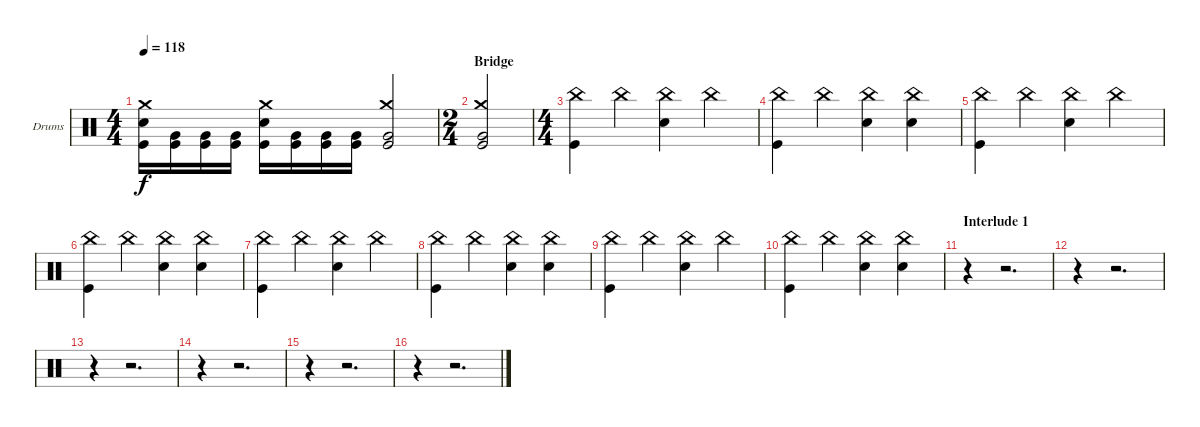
\bracketExtendMode groupsimilarinstruments
\firstSystemTrackNameOrientation horizontal
\otherSystemsTrackNameOrientation horizontal
\track ("Drumkit" "Drums") {solo instrument percussion}
\staff {score}
\articulation defaults
\ts (4 4)
\tempo 118
\clef neutral
\ks c
("Kick (hit)" "Snare (hit) 2" "Crash medium (hit)").16{dy f} ("Kick (hit)" "Very Low Tom (hit)").16 ("Kick (hit)" "Very Low Tom (hit)").16 ("Kick (hit)" "Very Low Tom (hit)").16 ("Kick (hit)" "Snare (hit) 2" "Crash medium (hit)").16 ("Kick (hit)" "Very Low Tom (hit)").16 ("Kick (hit)" "Very Low Tom (hit)").16 ("Kick (hit)" "Very Low Tom (hit)").16 ("Kick (hit)" "Very Low Tom (hit)" "Crash medium (hit)").2 |
\ts (2 4)
\beaming (8 2 2)
\section ("" "Bridge")
("Kick (hit)" "Very Low Tom (hit)" "Crash medium (hit)").2 |
\ts (4 4)
\beaming (8 2 2 2 2)
("Kick (hit)" "China (hit)").4 "China (hit)".4 ("Snare (hit) 2" "China (hit)").4 "China (hit)".4 |
("Kick (hit)" "China (hit)").4 "China (hit)".4 ("Snare (hit) 2" "China (hit)").4 ("Snare (hit) 2" "China (hit)").4 |
("Kick (hit)" "China (hit)").4 "China (hit)".4 ("Snare (hit) 2" "China (hit)").4 "China (hit)".4 |
("Kick (hit)" "China (hit)").4 "China (hit)".4 ("Snare (hit) 2" "China (hit)").4 ("Snare (hit) 2" "China (hit)").4 |
("Kick (hit)" "China (hit)").4 "China (hit)".4 ("Snare (hit) 2" "China (hit)").4 "China (hit)".4 |
("Kick (hit)" "China (hit)").4 "China (hit)".4 ("Snare (hit) 2" "China (hit)").4 ("Snare (hit) 2" "China (hit)").4 |
("Kick (hit)" "China (hit)").4 "China (hit)".4 ("Snare (hit) 2" "China (hit)").4 "China (hit)".4 |
("Kick (hit)" "China (hit)").4 "China (hit)".4 ("Snare (hit) 2" "China (hit)").4 ("Snare (hit) 2" "China (hit)").4 |
\section ("" "Interlude 1")
r.4 r.2{d} |
r.4 r.2{d} |
r.4 r.2{d} |
r.4 r.2{d} |
r.4 r.2{d} |
r.4 r.2{d}
